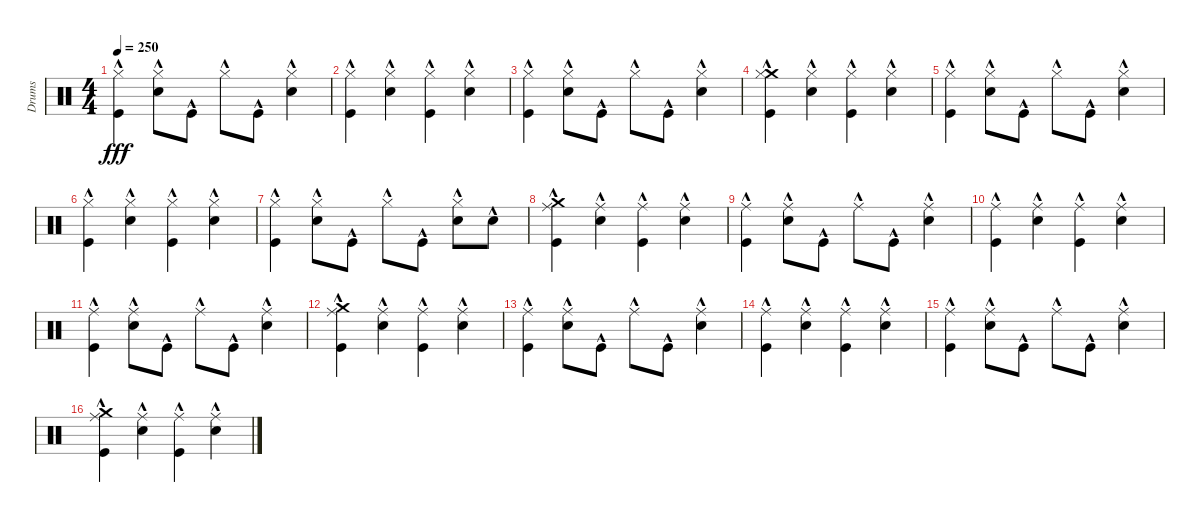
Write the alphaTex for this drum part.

\track ("Drums" "Drums") {instrument percussion}
\staff {score}
\articulation defaults
\ts (4 4)
\tempo 250
\clef neutral
\ks c
("Hi-Hat (closed)"{hac} "Kick (hit)"{hac}).4{dy fff} ("Hi-Hat (closed)"{hac} "Snare (hit) 2"{hac}).8 "Kick (hit)"{hac}.8 "Hi-Hat (closed)"{hac}.8 "Kick (hit)"{hac}.8 ("Hi-Hat (closed)"{hac} "Snare (hit) 2"{hac}).4 |
("Hi-Hat (closed)"{hac} "Kick (hit)"{hac}).4 ("Hi-Hat (closed)"{hac} "Snare (hit) 2"{hac}).4 ("Hi-Hat (closed)"{hac} "Kick (hit)"{hac}).4 ("Hi-Hat (closed)"{hac} "Snare (hit) 2"{hac}).4 |
("Hi-Hat (closed)"{hac} "Kick (hit)"{hac}).4 ("Hi-Hat (closed)"{hac} "Snare (hit) 2"{hac}).8 "Kick (hit)"{hac}.8 "Hi-Hat (closed)"{hac}.8 "Kick (hit)"{hac}.8 ("Hi-Hat (closed)"{hac} "Snare (hit) 2"{hac}).4 |
("Crash medium (hit)"{hac} "Hi-Hat (closed)"{hac} "Kick (hit)"{hac}).4 ("Hi-Hat (closed)"{hac} "Snare (hit) 2"{hac}).4 ("Hi-Hat (closed)"{hac} "Kick (hit)"{hac}).4 ("Hi-Hat (closed)"{hac} "Snare (hit) 2"{hac}).4 |
("Hi-Hat (closed)"{hac} "Kick (hit)"{hac}).4 ("Hi-Hat (closed)"{hac} "Snare (hit) 2"{hac}).8 "Kick (hit)"{hac}.8 "Hi-Hat (closed)"{hac}.8 "Kick (hit)"{hac}.8 ("Hi-Hat (closed)"{hac} "Snare (hit) 2"{hac}).4 |
("Hi-Hat (closed)"{hac} "Kick (hit)"{hac}).4 ("Hi-Hat (closed)"{hac} "Snare (hit) 2"{hac}).4 ("Hi-Hat (closed)"{hac} "Kick (hit)"{hac}).4 ("Hi-Hat (closed)"{hac} "Snare (hit) 2"{hac}).4 |
("Hi-Hat (closed)"{hac} "Kick (hit)"{hac}).4 ("Hi-Hat (closed)"{hac} "Snare (hit) 2"{hac}).8 "Kick (hit)"{hac}.8 "Hi-Hat (closed)"{hac}.8 "Kick (hit)"{hac}.8 ("Hi-Hat (closed)"{hac} "Snare (hit) 2"{hac}).8 "Snare (hit) 2"{hac}.8 |
("Crash medium (hit)"{hac} "Ride (middle)"{hac} "Kick (hit)"{hac}).4 ("Ride (middle)"{hac} "Snare (hit) 2"{hac}).4 ("Ride (middle)"{hac} "Kick (hit)"{hac}).4 ("Ride (middle)"{hac} "Snare (hit) 2"{hac}).4 |
("Ride (middle)"{hac} "Kick (hit)"{hac}).4 ("Ride (middle)"{hac} "Snare (hit) 2"{hac}).8 "Kick (hit)"{hac}.8 "Ride (middle)"{hac}.8 "Kick (hit)"{hac}.8 ("Ride (middle)"{hac} "Snare (hit) 2"{hac}).4 |
("Ride (middle)"{hac} "Kick (hit)"{hac}).4 ("Ride (middle)"{hac} "Snare (hit) 2"{hac}).4 ("Ride (middle)"{hac} "Kick (hit)"{hac}).4 ("Ride (middle)"{hac} "Snare (hit) 2"{hac}).4 |
("Ride (middle)"{hac} "Kick (hit)"{hac}).4 ("Ride (middle)"{hac} "Snare (hit) 2"{hac}).8 "Kick (hit)"{hac}.8 "Ride (middle)"{hac}.8 "Kick (hit)"{hac}.8 ("Ride (middle)"{hac} "Snare (hit) 2"{hac}).4 |
("Crash medium (hit)"{hac} "Ride (middle)"{hac} "Kick (hit)"{hac}).4 ("Ride (middle)"{hac} "Snare (hit) 2"{hac}).4 ("Ride (middle)"{hac} "Kick (hit)"{hac}).4 ("Ride (middle)"{hac} "Snare (hit) 2"{hac}).4 |
("Ride (middle)"{hac} "Kick (hit)"{hac}).4 ("Ride (middle)"{hac} "Snare (hit) 2"{hac}).8 "Kick (hit)"{hac}.8 "Ride (middle)"{hac}.8 "Kick (hit)"{hac}.8 ("Ride (middle)"{hac} "Snare (hit) 2"{hac}).4 |
("Ride (middle)"{hac} "Kick (hit)"{hac}).4 ("Ride (middle)"{hac} "Snare (hit) 2"{hac}).4 ("Ride (middle)"{hac} "Kick (hit)"{hac}).4 ("Ride (middle)"{hac} "Snare (hit) 2"{hac}).4 |
("Ride (middle)"{hac} "Kick (hit)"{hac}).4 ("Ride (middle)"{hac} "Snare (hit) 2"{hac}).8 "Kick (hit)"{hac}.8 "Ride (middle)"{hac}.8 "Kick (hit)"{hac}.8 ("Ride (middle)"{hac} "Snare (hit) 2"{hac}).4 |
("Crash medium (hit)"{hac} "Ride (middle)"{hac} "Kick (hit)"{hac}).4 ("Ride (middle)"{hac} "Snare (hit) 2"{hac}).4 ("Ride (middle)"{hac} "Kick (hit)"{hac}).4 ("Ride (middle)"{hac} "Snare (hit) 2"{hac}).4
